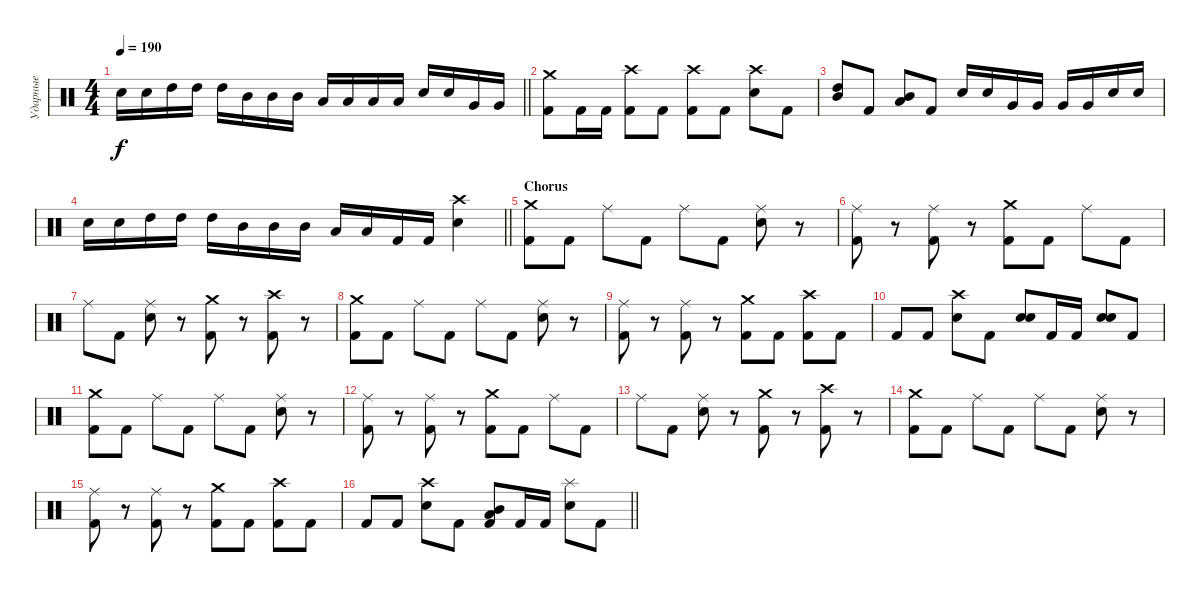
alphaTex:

\track ("Ударные" "Ударные") {instrument percussion}
\staff {score}
\articulation defaults
\ts (4 4)
\tempo 190
\clef neutral
\barLineRight lightlight
\ks c "Electric Snare (hit)".16{dy f} "Electric Snare (hit)".16 "High Tom (hit)".16 "High Tom (hit)".16 "High Tom (hit)".16 "Mid Tom (hit)".16 "Mid Tom (hit)".16 "Mid Tom (hit)".16 "Low Tom (hit)".16 "Low Tom (hit)".16 "Low Tom (hit)".16 "Low Tom (hit)".16 "Electric Snare (hit)".16 "Electric Snare (hit)".16 "Very Low Tom (hit)".16 "Very Low Tom (hit)".16
|
\section ("" "")
("Crash medium (hit)" "Kick (hit) 2").8 "Kick (hit) 2".16 "Kick (hit) 2".16 ("Crash high (hit)" "Kick (hit) 2").8 "Kick (hit) 2".8 ("Crash high (hit)" "Kick (hit) 2").8 "Kick (hit) 2".8 ("Crash high (hit)" "Electric Snare (hit)").8 "Kick (hit) 2".8 |
("Mid Tom (hit)" "High Tom (hit)").8 "Kick (hit) 2".8 ("Low Tom (hit)" "Mid Tom (hit)").8 "Kick (hit) 2".8 "Electric Snare (hit)".16 "Electric Snare (hit)".16 "Very Low Tom (hit)".16 "Very Low Tom (hit)".16 "Very Low Tom (hit)".16 "Very Low Tom (hit)".16 "Electric Snare (hit)".16 "Electric Snare (hit)".16 |
\barLineRight lightlight "Electric Snare (hit)".16 "Electric Snare (hit)".16 "High Tom (hit)".16 "High Tom (hit)".16 "High Tom (hit)".16 "Mid Tom (hit)".16 "Mid Tom (hit)".16 "Mid Tom (hit)".16 "Low Tom (hit)".16 "Low Tom (hit)".16 "Kick (hit) 2".16 "Kick (hit) 2".16
("Crash high (hit)" "Electric Snare (hit)").4 |
\section ("" "Chorus")
("Crash medium (hit)" "Kick (hit) 2").8 "Kick (hit) 2".8 "Ride (middle)".8 "Kick (hit) 2".8 "Ride (middle)".8 "Kick (hit) 2".8 ("Ride (middle)" "Electric Snare (hit)").8 r.8 |
("Ride (middle)" "Kick (hit) 2").8 r.8 ("Ride (middle)" "Kick (hit) 2").8 r.8 ("Crash medium (hit)" "Kick (hit) 2").8 "Kick (hit) 2".8 "Ride (middle)".8 "Kick (hit) 2".8 |
"Ride (middle)".8 "Kick (hit) 2".8 ("Ride (middle)" "Electric Snare (hit)").8 r.8 ("Crash medium (hit)" "Kick (hit) 2").8 r.8 ("Crash high (hit)" "Kick (hit) 2").8 r.8 |
("Crash medium (hit)" "Kick (hit) 2").8 "Kick (hit) 2".8 "Ride (middle)".8 "Kick (hit) 2".8 "Ride (middle)".8 "Kick (hit) 2".8 ("Ride (middle)" "Electric Snare (hit)").8 r.8 |
("Ride (middle)" "Kick (hit) 2").8 r.8 ("Ride (middle)" "Kick (hit) 2").8 r.8 ("Crash medium (hit)" "Kick (hit) 2").8 "Kick (hit) 2".8 ("Crash high (hit)" "Kick (hit) 2").8 "Kick (hit) 2".8 |
"Kick (hit) 2".8 "Kick (hit) 2".8 ("Crash high (hit)" "Electric Snare (hit)").8 "Kick (hit) 2".8 ("Electric Snare (hit)" "Electric Snare (hit)").8 "Kick (hit) 2".16 "Kick (hit) 2".16 ("Electric Snare (hit)" "Electric Snare (hit)").8 "Kick (hit) 2".8 |
("Crash medium (hit)" "Kick (hit) 2").8 "Kick (hit) 2".8 "Ride (middle)".8 "Kick (hit) 2".8 "Ride (middle)".8 "Kick (hit) 2".8 ("Ride (middle)" "Electric Snare (hit)").8 r.8 |
("Ride (middle)" "Kick (hit) 2").8 r.8 ("Ride (middle)" "Kick (hit) 2").8 r.8 ("Crash medium (hit)" "Kick (hit) 2").8 "Kick (hit) 2".8 "Ride (middle)".8 "Kick (hit) 2".8 |
"Ride (middle)".8 "Kick (hit) 2".8 ("Ride (middle)" "Electric Snare (hit)").8 r.8 ("Crash medium (hit)" "Kick (hit) 2").8 r.8 ("Crash high (hit)" "Kick (hit) 2").8 r.8 |
("Crash medium (hit)" "Kick (hit) 2").8 "Kick (hit) 2".8 "Ride (middle)".8 "Kick (hit) 2".8 "Ride (middle)".8 "Kick (hit) 2".8 ("Ride (middle)" "Electric Snare (hit)").8 r.8 |
("Ride (middle)" "Kick (hit) 2").8 r.8 ("Ride (middle)" "Kick (hit) 2").8 r.8 ("Crash medium (hit)" "Kick (hit) 2").8 "Kick (hit) 2".8 ("Crash high (hit)" "Kick (hit) 2").8 "Kick (hit) 2".8 |
\barLineRight lightlight "Kick (hit) 2".8 "Kick (hit) 2".8
("Crash high (hit)" "Electric Snare (hit)").8 "Kick (hit) 2".8 ("Low Tom (hit)" "Mid Tom (hit)" "Kick (hit) 2").8 "Kick (hit) 2".16 "Kick (hit) 2".16 ("Splash (hit)" "Electric Snare (hit)").8 "Kick (hit) 2".8
